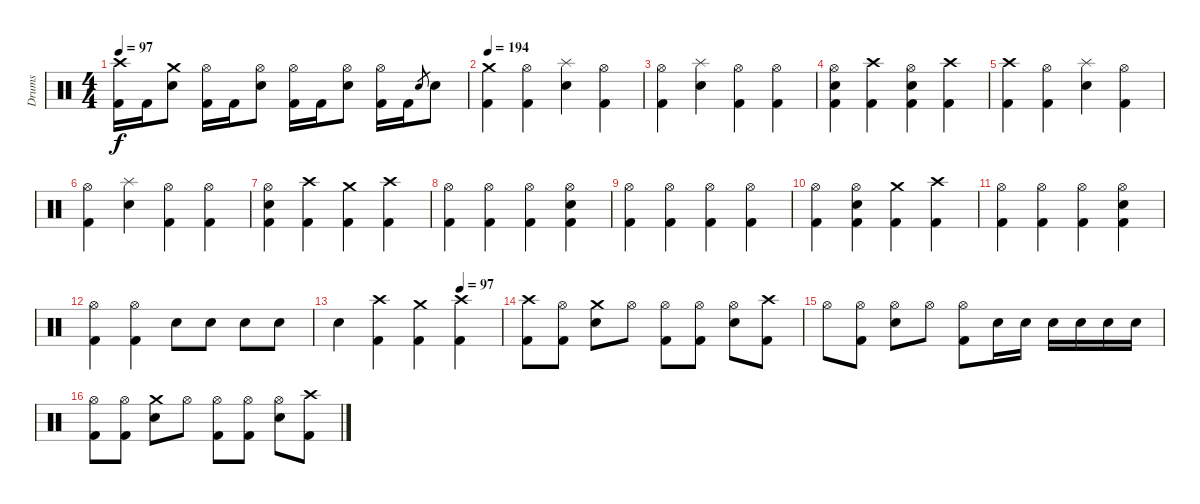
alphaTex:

\track ("Drums" "Drums") {instrument percussion}
\staff {score}
\articulation defaults
\ts (4 4)
\tempo 97
\clef neutral
\ks c
("Crash high (hit)" "Kick (hit) 2").16{dy f} "Kick (hit) 2".16 ("Crash medium (hit)" "Electric Snare (hit)").8 ("Hi-Hat (open)" "Kick (hit) 2").16 "Kick (hit) 2".16 ("Hi-Hat (open)" "Electric Snare (hit)").8 ("Hi-Hat (open)" "Kick (hit) 2").16 "Kick (hit) 2".16 ("Hi-Hat (open)" "Electric Snare (hit)").8 ("Hi-Hat (open)" "Kick (hit) 2").16 "Kick (hit) 2".16 "Electric Snare (hit)".8{gr} "Electric Snare (hit)".8 |
\tempo 194
("Crash medium (hit)" "Kick (hit) 2").4 ("Hi-Hat (open)" "Kick (hit) 2").4 ("Splash (hit)" "Electric Snare (hit)").4 ("Hi-Hat (open)" "Kick (hit) 2").4 |
("Hi-Hat (open)" "Kick (hit) 2").4 ("Splash (hit)" "Electric Snare (hit)").4 ("Hi-Hat (open)" "Kick (hit) 2").4 ("Hi-Hat (open)" "Kick (hit) 2").4 |
("Hi-Hat (open)" "Electric Snare (hit)" "Kick (hit) 2").4 ("Crash high (hit)" "Kick (hit) 2").4 ("Hi-Hat (open)" "Electric Snare (hit)" "Kick (hit) 2").4 ("Crash high (hit)" "Kick (hit) 2").4 |
("Crash high (hit)" "Kick (hit) 2").4 ("Hi-Hat (open)" "Kick (hit) 2").4 ("Splash (hit)" "Electric Snare (hit)").4 ("Hi-Hat (open)" "Kick (hit) 2").4 |
("Hi-Hat (open)" "Kick (hit) 2").4 ("Splash (hit)" "Electric Snare (hit)").4 ("Hi-Hat (open)" "Kick (hit) 2").4 ("Hi-Hat (open)" "Kick (hit) 2").4 |
("Hi-Hat (open)" "Electric Snare (hit)" "Kick (hit) 2").4 ("Crash high (hit)" "Kick (hit) 2").4 ("Crash medium (hit)" "Kick (hit) 2").4 ("Crash high (hit)" "Kick (hit) 2").4 |
("Hi-Hat (open)" "Kick (hit) 2").4 ("Hi-Hat (open)" "Kick (hit) 2").4 ("Hi-Hat (open)" "Kick (hit) 2").4 ("Hi-Hat (open)" "Electric Snare (hit)" "Kick (hit) 2").4 |
("Hi-Hat (open)" "Kick (hit) 2").4 ("Hi-Hat (open)" "Kick (hit) 2").4 ("Hi-Hat (open)" "Kick (hit) 2").4 ("Hi-Hat (open)" "Kick (hit) 2").4 |
("Hi-Hat (open)" "Kick (hit) 2").4 ("Hi-Hat (open)" "Electric Snare (hit)" "Kick (hit) 2").4 ("Crash medium (hit)" "Kick (hit) 2").4 ("Crash high (hit)" "Kick (hit) 2").4 |
("Hi-Hat (open)" "Kick (hit) 2").4 ("Hi-Hat (open)" "Kick (hit) 2").4 ("Hi-Hat (open)" "Kick (hit) 2").4 ("Hi-Hat (open)" "Electric Snare (hit)" "Kick (hit) 2").4 |
("Hi-Hat (open)" "Kick (hit) 2").4 ("Hi-Hat (open)" "Kick (hit) 2").4 "Electric Snare (hit)".8 "Electric Snare (hit)".8 "Electric Snare (hit)".8 "Electric Snare (hit)".8 |
\tempo (97 0.75)
"Electric Snare (hit)".4 ("Crash high (hit)" "Kick (hit) 2").4 ("Crash medium (hit)" "Kick (hit) 2").4 ("Crash high (hit)" "Kick (hit) 2").4 |
("Crash high (hit)" "Kick (hit) 2").8 ("Hi-Hat (open)" "Kick (hit) 2").8 ("Crash medium (hit)" "Electric Snare (hit)").8 "Hi-Hat (open)".8 ("Hi-Hat (open)" "Kick (hit) 2").8 ("Hi-Hat (open)" "Kick (hit) 2").8 ("Hi-Hat (open)" "Electric Snare (hit)").8 ("Crash high (hit)" "Kick (hit) 2").8 |
"Hi-Hat (open)".8 ("Hi-Hat (open)" "Kick (hit) 2").8 ("Hi-Hat (open)" "Electric Snare (hit)").8 "Hi-Hat (open)".8 ("Hi-Hat (open)" "Kick (hit) 2").8 "Electric Snare (hit)".16 "Electric Snare (hit)".16 "Electric Snare (hit)".16 "Electric Snare (hit)".16 "Electric Snare (hit)".16 "Electric Snare (hit)".16 |
("Hi-Hat (open)" "Kick (hit) 2").8 ("Hi-Hat (open)" "Kick (hit) 2").8 ("Crash medium (hit)" "Electric Snare (hit)").8 "Hi-Hat (open)".8 ("Hi-Hat (open)" "Kick (hit) 2").8 ("Hi-Hat (open)" "Kick (hit) 2").8 ("Hi-Hat (open)" "Electric Snare (hit)").8 ("Crash high (hit)" "Kick (hit) 2").8
